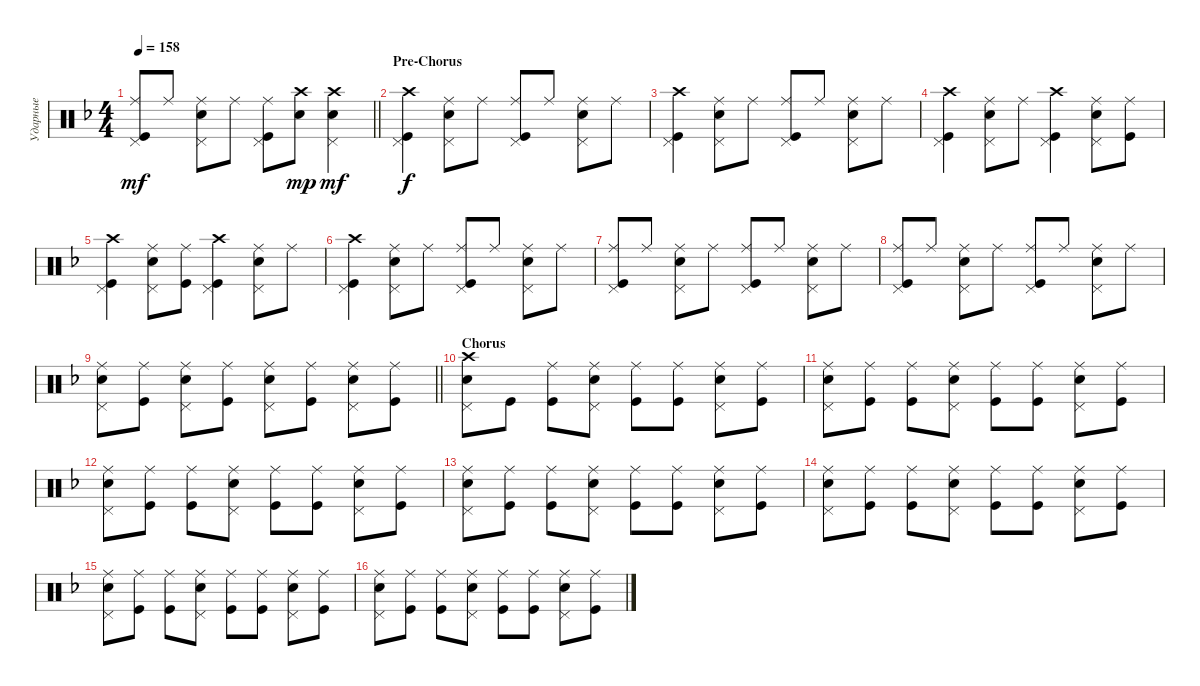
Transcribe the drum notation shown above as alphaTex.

\track ("Ударные" "Ударные") {instrument percussion}
\staff {score}
\articulation defaults
\ts (4 4)
\tempo 158
\clef neutral
\barLineRight lightlight
\ks dminor
("Ride (middle)" "Kick (hit)" "Pedal Hi-Hat (hit)").8{dy mf} "Ride (middle)".8 ("Snare (hit) 2" "Pedal Hi-Hat (hit)" "Ride (middle)").8 "Ride (middle)".8 ("Ride (middle)" "Kick (hit)" "Pedal Hi-Hat (hit)").8 ("Crash high (hit)" "Snare (hit) 2").8{dy mp} ("Crash high (hit)" "Snare (hit) 2" "Pedal Hi-Hat (hit)").4{dy mf} |
\section ("" "Pre-Chorus")
("Kick (hit)" "Crash high (hit)" "Pedal Hi-Hat (hit)").4{dy f} ("Ride (middle)" "Snare (hit) 2" "Pedal Hi-Hat (hit)").8 "Ride (middle)".8 ("Ride (middle)" "Kick (hit)" "Pedal Hi-Hat (hit)").8 "Ride (middle)".8 ("Ride (middle)" "Snare (hit) 2" "Pedal Hi-Hat (hit)").8 "Ride (middle)".8 |
("Kick (hit)" "Crash high (hit)" "Pedal Hi-Hat (hit)").4 ("Ride (middle)" "Snare (hit) 2" "Pedal Hi-Hat (hit)").8 "Ride (middle)".8 ("Ride (middle)" "Kick (hit)" "Pedal Hi-Hat (hit)").8 "Ride (middle)".8 ("Ride (middle)" "Snare (hit) 2" "Pedal Hi-Hat (hit)").8 "Ride (middle)".8 |
("Kick (hit)" "Crash high (hit)" "Pedal Hi-Hat (hit)").4 ("Ride (middle)" "Snare (hit) 2" "Pedal Hi-Hat (hit)").8 "Ride (middle)".8 ("Crash high (hit)" "Kick (hit)" "Pedal Hi-Hat (hit)").4 ("Ride (middle)" "Snare (hit) 2" "Pedal Hi-Hat (hit)").8 ("Ride (middle)" "Kick (hit)").8 |
("Kick (hit)" "Crash high (hit)" "Pedal Hi-Hat (hit)").4 ("Ride (middle)" "Snare (hit) 2" "Pedal Hi-Hat (hit)").8 ("Ride (middle)" "Kick (hit)").8 ("Crash high (hit)" "Kick (hit)" "Pedal Hi-Hat (hit)").4 ("Ride (middle)" "Snare (hit) 2" "Pedal Hi-Hat (hit)").8 "Ride (middle)".8 |
("Kick (hit)" "Crash high (hit)" "Pedal Hi-Hat (hit)").4 ("Ride (middle)" "Snare (hit) 2" "Pedal Hi-Hat (hit)").8 "Ride (middle)".8 ("Ride (middle)" "Kick (hit)" "Pedal Hi-Hat (hit)").8 "Ride (middle)".8 ("Ride (middle)" "Snare (hit) 2" "Pedal Hi-Hat (hit)").8 "Ride (middle)".8 |
("Kick (hit)" "Ride (middle)" "Pedal Hi-Hat (hit)").8 "Ride (middle)".8 ("Ride (middle)" "Snare (hit) 2" "Pedal Hi-Hat (hit)").8 "Ride (middle)".8 ("Ride (middle)" "Kick (hit)" "Pedal Hi-Hat (hit)").8 "Ride (middle)".8 ("Ride (middle)" "Snare (hit) 2" "Pedal Hi-Hat (hit)").8 "Ride (middle)".8 |
("Kick (hit)" "Ride (middle)" "Pedal Hi-Hat (hit)").8 "Ride (middle)".8 ("Ride (middle)" "Snare (hit) 2" "Pedal Hi-Hat (hit)").8 "Ride (middle)".8 ("Ride (middle)" "Kick (hit)" "Pedal Hi-Hat (hit)").8 "Ride (middle)".8 ("Ride (middle)" "Snare (hit) 2" "Pedal Hi-Hat (hit)").8 "Ride (middle)".8 |
\barLineRight lightlight
("Snare (hit) 2" "Ride (middle)" "Pedal Hi-Hat (hit)").8 ("Ride (middle)" "Kick (hit)").8 ("Ride (middle)" "Snare (hit) 2" "Pedal Hi-Hat (hit)").8 ("Ride (middle)" "Kick (hit)").8 ("Ride (middle)" "Snare (hit) 2" "Pedal Hi-Hat (hit)").8 ("Ride (middle)" "Kick (hit)").8 ("Ride (middle)" "Snare (hit) 2" "Pedal Hi-Hat (hit)").8 ("Ride (middle)" "Kick (hit)").8 |
\section ("" "Chorus")
("Snare (hit) 2" "Crash high (hit)" "Pedal Hi-Hat (hit)").8 "Kick (hit)".8 ("Kick (hit)" "Ride (middle)").8 ("Snare (hit) 2" "Ride (middle)" "Pedal Hi-Hat (hit)").8 ("Kick (hit)" "Ride (middle)").8 ("Kick (hit)" "Ride (middle)").8 ("Snare (hit) 2" "Ride (middle)" "Pedal Hi-Hat (hit)").8 ("Kick (hit)" "Ride (middle)").8 |
("Snare (hit) 2" "Ride (middle)" "Pedal Hi-Hat (hit)").8 ("Kick (hit)" "Ride (middle)").8 ("Kick (hit)" "Ride (middle)").8 ("Snare (hit) 2" "Ride (middle)" "Pedal Hi-Hat (hit)").8 ("Kick (hit)" "Ride (middle)").8 ("Kick (hit)" "Ride (middle)").8 ("Snare (hit) 2" "Ride (middle)" "Pedal Hi-Hat (hit)").8 ("Kick (hit)" "Ride (middle)").8 |
("Snare (hit) 2" "Ride (middle)" "Pedal Hi-Hat (hit)").8 ("Kick (hit)" "Ride (middle)").8 ("Kick (hit)" "Ride (middle)").8 ("Snare (hit) 2" "Ride (middle)" "Pedal Hi-Hat (hit)").8 ("Kick (hit)" "Ride (middle)").8 ("Kick (hit)" "Ride (middle)").8 ("Snare (hit) 2" "Ride (middle)" "Pedal Hi-Hat (hit)").8 ("Kick (hit)" "Ride (middle)").8 |
("Snare (hit) 2" "Ride (middle)" "Pedal Hi-Hat (hit)").8 ("Kick (hit)" "Ride (middle)").8 ("Kick (hit)" "Ride (middle)").8 ("Snare (hit) 2" "Ride (middle)" "Pedal Hi-Hat (hit)").8 ("Kick (hit)" "Ride (middle)").8 ("Kick (hit)" "Ride (middle)").8 ("Snare (hit) 2" "Ride (middle)" "Pedal Hi-Hat (hit)").8 ("Kick (hit)" "Ride (middle)").8 |
("Snare (hit) 2" "Ride (middle)" "Pedal Hi-Hat (hit)").8 ("Kick (hit)" "Ride (middle)").8 ("Kick (hit)" "Ride (middle)").8 ("Snare (hit) 2" "Ride (middle)" "Pedal Hi-Hat (hit)").8 ("Kick (hit)" "Ride (middle)").8 ("Kick (hit)" "Ride (middle)").8 ("Snare (hit) 2" "Ride (middle)" "Pedal Hi-Hat (hit)").8 ("Kick (hit)" "Ride (middle)").8 |
("Snare (hit) 2" "Ride (middle)" "Pedal Hi-Hat (hit)").8 ("Kick (hit)" "Ride (middle)").8 ("Kick (hit)" "Ride (middle)").8 ("Snare (hit) 2" "Ride (middle)" "Pedal Hi-Hat (hit)").8 ("Kick (hit)" "Ride (middle)").8 ("Kick (hit)" "Ride (middle)").8 ("Snare (hit) 2" "Ride (middle)" "Pedal Hi-Hat (hit)").8 ("Kick (hit)" "Ride (middle)").8 |
("Snare (hit) 2" "Ride (middle)" "Pedal Hi-Hat (hit)").8 ("Kick (hit)" "Ride (middle)").8 ("Kick (hit)" "Ride (middle)").8 ("Snare (hit) 2" "Ride (middle)" "Pedal Hi-Hat (hit)").8 ("Kick (hit)" "Ride (middle)").8 ("Kick (hit)" "Ride (middle)").8 ("Snare (hit) 2" "Ride (middle)" "Pedal Hi-Hat (hit)").8 ("Kick (hit)" "Ride (middle)").8
